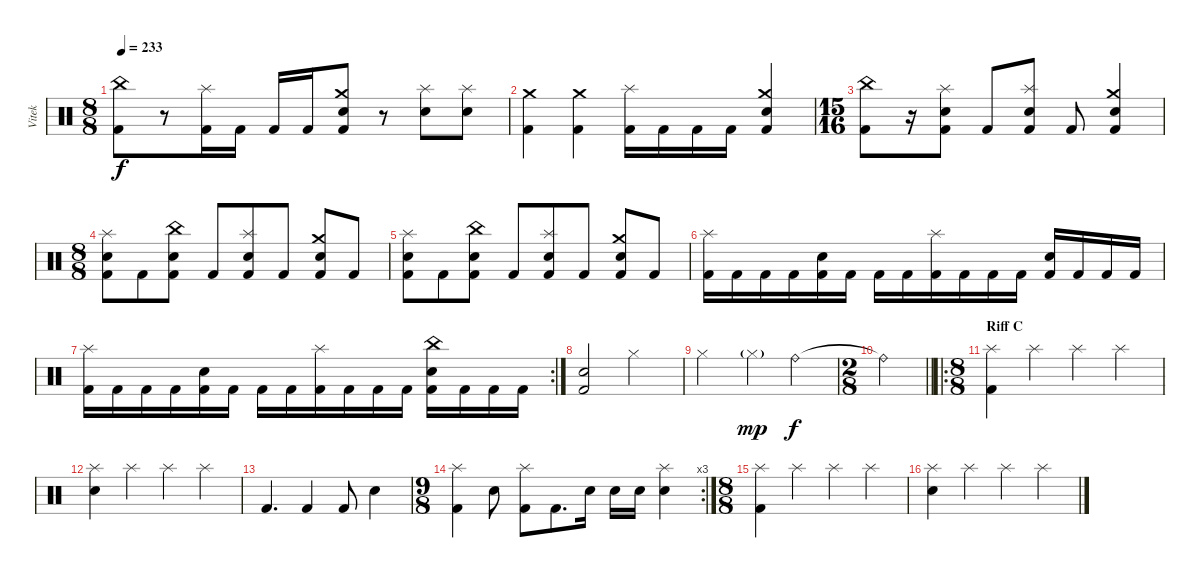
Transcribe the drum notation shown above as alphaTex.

\track ("Vitek" "Vitek") {instrument percussion}
\staff {score}
\articulation defaults
\ts (8 8)
\tempo 233
\clef neutral
\ks c
("China (hit)" "Kick (hit) 2").8{dy f} r.8 ("Splash (hit)" "Kick (hit) 2").16 "Kick (hit) 2".16 "Kick (hit) 2".16 "Kick (hit) 2".16 ("Crash medium (hit)" "Electric Snare (hit)" "Kick (hit) 2").8 r.8 ("Splash (hit)" "Electric Snare (hit)").8 ("Splash (hit)" "Electric Snare (hit)").8 |
("Crash medium (hit)" "Kick (hit) 2").4 ("Crash medium (hit)" "Kick (hit) 2").4 ("Splash (hit)" "Kick (hit) 2").16 "Kick (hit) 2".16 "Kick (hit) 2".16 "Kick (hit) 2".16 ("Crash medium (hit)" "Electric Snare (hit)" "Kick (hit) 2").4 |
\ts (15 16)
("China (hit)" "Kick (hit) 2").8 r.16 ("Splash (hit)" "Electric Snare (hit)" "Kick (hit) 2").8 "Kick (hit) 2".8 ("Splash (hit)" "Electric Snare (hit)" "Kick (hit) 2").8 "Kick (hit) 2".8 ("Crash medium (hit)" "Electric Snare (hit)" "Kick (hit) 2").4 |
\ts (8 8)
("Splash (hit)" "Electric Snare (hit)" "Kick (hit) 2").8 "Kick (hit) 2".8 ("China (hit)" "Electric Snare (hit)" "Kick (hit) 2").8 "Kick (hit) 2".8 ("Splash (hit)" "Electric Snare (hit)" "Kick (hit) 2").8 "Kick (hit) 2".8 ("Crash medium (hit)" "Electric Snare (hit)" "Kick (hit) 2").8 "Kick (hit) 2".8 |
("Splash (hit)" "Electric Snare (hit)" "Kick (hit) 2").8 "Kick (hit) 2".8 ("China (hit)" "Electric Snare (hit)" "Kick (hit) 2").8 "Kick (hit) 2".8 ("Splash (hit)" "Electric Snare (hit)" "Kick (hit) 2").8 "Kick (hit) 2".8 ("Crash medium (hit)" "Electric Snare (hit)" "Kick (hit) 2").8 "Kick (hit) 2".8 |
("Splash (hit)" "Kick (hit) 2").16 "Kick (hit) 2".16 "Kick (hit) 2".16 "Kick (hit) 2".16 ("Electric Snare (hit)" "Kick (hit) 2").16 "Kick (hit) 2".16 "Kick (hit) 2".16 "Kick (hit) 2".16 ("Splash (hit)" "Kick (hit) 2").16 "Kick (hit) 2".16 "Kick (hit) 2".16 "Kick (hit) 2".16 ("Electric Snare (hit)" "Kick (hit) 2").16 "Kick (hit) 2".16 "Kick (hit) 2".16 "Kick (hit) 2".16 |
\rc 2
("Splash (hit)" "Kick (hit) 2").16 "Kick (hit) 2".16 "Kick (hit) 2".16 "Kick (hit) 2".16 ("Electric Snare (hit)" "Kick (hit) 2").16 "Kick (hit) 2".16 "Kick (hit) 2".16 "Kick (hit) 2".16 ("Splash (hit)" "Kick (hit) 2").16 "Kick (hit) 2".16 "Kick (hit) 2".16 "Kick (hit) 2".16 ("China (hit)" "Electric Snare (hit)" "Kick (hit) 2").16 "Kick (hit) 2".16 "Kick (hit) 2".16 "Kick (hit) 2".16 |
("Electric Snare (hit)" "Kick (hit) 2").2 "Hi-Hat (closed)".2 |
"Hi-Hat (closed)".2 "Hi-Hat (closed)"{g}.4{dy mp} "Ride (bell)".4{dy f} |
\ts (2 8)
\barLineRight lightlight "Ride (bell)"{t}.4
|
\ro
\ts (8 8)
\section ("" "Riff C")
("Splash (hit)" "Kick (hit) 2").4 "Splash (hit)".4 "Splash (hit)".4 "Splash (hit)".4 |
("Splash (hit)" "Electric Snare (hit)").4 "Splash (hit)".4 "Splash (hit)".4 "Splash (hit)".4 |
"Kick (hit) 2".4{d} "Kick (hit) 2".4 "Kick (hit) 2".8 "Electric Snare (hit)".4 |
\rc 3
\ts (9 8)
("Splash (hit)" "Kick (hit) 2").4 "Electric Snare (hit)".8 ("Splash (hit)" "Kick (hit) 2").8 "Kick (hit) 2".8{d} "Electric Snare (hit)".16 "Electric Snare (hit)".16 "Electric Snare (hit)".16 ("Splash (hit)" "Electric Snare (hit)").4 |
\ts (8 8)
("Splash (hit)" "Kick (hit) 2").4 "Splash (hit)".4 "Splash (hit)".4 "Splash (hit)".4 |
("Splash (hit)" "Electric Snare (hit)").4 "Splash (hit)".4 "Splash (hit)".4 "Splash (hit)".4
